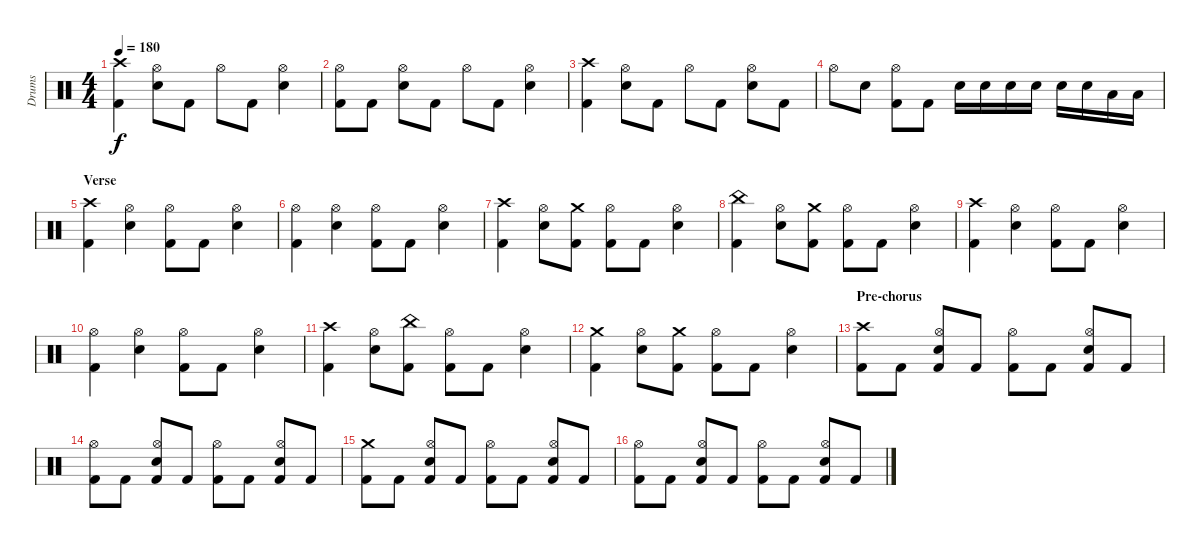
\track ("Drums" "Drums") {instrument percussion}
\staff {score}
\articulation defaults
\ts (4 4)
\tempo 180
\clef neutral
\ks c
("Crash high (hit)" "Kick (hit) 2").4{dy f} ("Hi-Hat (open)" "Electric Snare (hit)").8 "Kick (hit) 2".8 "Hi-Hat (open)".8 "Kick (hit) 2".8 ("Hi-Hat (open)" "Electric Snare (hit)").4 |
("Hi-Hat (open)" "Kick (hit) 2").8 "Kick (hit) 2".8 ("Hi-Hat (open)" "Electric Snare (hit)").8 "Kick (hit) 2".8 "Hi-Hat (open)".8 "Kick (hit) 2".8 ("Hi-Hat (open)" "Electric Snare (hit)").4 |
("Crash high (hit)" "Kick (hit) 2").4 ("Hi-Hat (open)" "Electric Snare (hit)").8 "Kick (hit) 2".8 "Hi-Hat (open)".8 "Kick (hit) 2".8 ("Hi-Hat (open)" "Electric Snare (hit)").8 "Kick (hit) 2".8 |
"Hi-Hat (open)".8 "Electric Snare (hit)".8 ("Hi-Hat (open)" "Kick (hit) 2").8 "Kick (hit) 2".8 "Snare (hit) 2".16 "Snare (hit) 2".16 "Snare (hit) 2".16 "Snare (hit) 2".16 "Snare (hit) 2".16 "Electric Snare (hit)".16 "Low Tom (hit)".16 "Low Tom (hit)".16 |
\section ("" "Verse")
("Crash high (hit)" "Kick (hit) 2").4 ("Hi-Hat (open)" "Electric Snare (hit)").4 ("Hi-Hat (open)" "Kick (hit) 2").8 "Kick (hit) 2".8 ("Hi-Hat (open)" "Electric Snare (hit)").4 |
("Hi-Hat (open)" "Kick (hit) 2").4 ("Hi-Hat (open)" "Electric Snare (hit)").4 ("Hi-Hat (open)" "Kick (hit) 2").8 "Kick (hit) 2".8 ("Hi-Hat (open)" "Electric Snare (hit)").4 |
("Crash high (hit)" "Kick (hit) 2").4 ("Hi-Hat (open)" "Electric Snare (hit)").8 ("Crash medium (hit)" "Kick (hit) 2").8 ("Hi-Hat (open)" "Kick (hit) 2").8 "Kick (hit) 2".8 ("Hi-Hat (open)" "Electric Snare (hit)").4 |
("China (hit)" "Kick (hit) 2").4 ("Hi-Hat (open)" "Electric Snare (hit)").8 ("Crash medium (hit)" "Kick (hit) 2").8 ("Hi-Hat (open)" "Kick (hit) 2").8 "Kick (hit) 2".8 ("Hi-Hat (open)" "Electric Snare (hit)").4 |
("Crash high (hit)" "Kick (hit) 2").4 ("Hi-Hat (open)" "Electric Snare (hit)").4 ("Hi-Hat (open)" "Kick (hit) 2").8 "Kick (hit) 2".8 ("Hi-Hat (open)" "Electric Snare (hit)").4 |
("Hi-Hat (open)" "Kick (hit) 2").4 ("Hi-Hat (open)" "Electric Snare (hit)").4 ("Hi-Hat (open)" "Kick (hit) 2").8 "Kick (hit) 2".8 ("Hi-Hat (open)" "Electric Snare (hit)").4 |
("Crash high (hit)" "Kick (hit) 2").4 ("Hi-Hat (open)" "Electric Snare (hit)").8 ("China (hit)" "Kick (hit) 2").8 ("Hi-Hat (open)" "Kick (hit) 2").8 "Kick (hit) 2".8 ("Hi-Hat (open)" "Electric Snare (hit)").4 |
("Crash medium (hit)" "Kick (hit) 2").4 ("Hi-Hat (open)" "Electric Snare (hit)").8 ("Crash medium (hit)" "Kick (hit) 2").8 ("Hi-Hat (open)" "Kick (hit) 2").8 "Kick (hit) 2".8 ("Hi-Hat (open)" "Electric Snare (hit)").4 |
\section ("" "Pre-chorus")
("Crash high (hit)" "Kick (hit) 2").8 "Kick (hit) 2".8 ("Hi-Hat (open)" "Electric Snare (hit)" "Kick (hit) 2").8 "Kick (hit) 2".8 ("Hi-Hat (open)" "Kick (hit) 2").8 "Kick (hit) 2".8 ("Hi-Hat (open)" "Electric Snare (hit)" "Kick (hit) 2").8 "Kick (hit) 2".8 |
("Hi-Hat (open)" "Kick (hit) 2").8 "Kick (hit) 2".8 ("Hi-Hat (open)" "Electric Snare (hit)" "Kick (hit) 2").8 "Kick (hit) 2".8 ("Hi-Hat (open)" "Kick (hit) 2").8 "Kick (hit) 2".8 ("Hi-Hat (open)" "Electric Snare (hit)" "Kick (hit) 2").8 "Kick (hit) 2".8 |
("Crash medium (hit)" "Kick (hit) 2").8 "Kick (hit) 2".8 ("Hi-Hat (open)" "Electric Snare (hit)" "Kick (hit) 2").8 "Kick (hit) 2".8 ("Hi-Hat (open)" "Kick (hit) 2").8 "Kick (hit) 2".8 ("Hi-Hat (open)" "Electric Snare (hit)" "Kick (hit) 2").8 "Kick (hit) 2".8 |
("Hi-Hat (open)" "Kick (hit) 2").8 "Kick (hit) 2".8 ("Hi-Hat (open)" "Electric Snare (hit)" "Kick (hit) 2").8 "Kick (hit) 2".8 ("Hi-Hat (open)" "Kick (hit) 2").8 "Kick (hit) 2".8 ("Hi-Hat (open)" "Electric Snare (hit)" "Kick (hit) 2").8 "Kick (hit) 2".8
